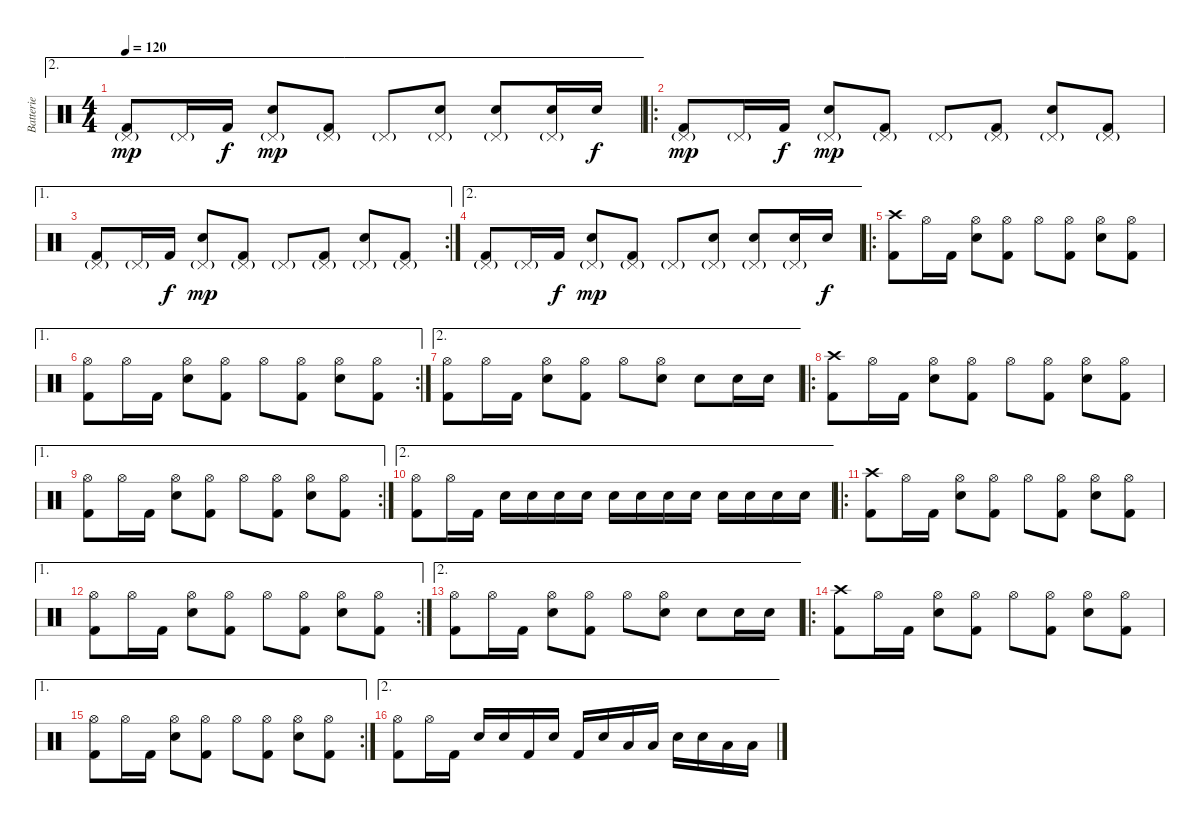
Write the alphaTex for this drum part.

\track ("Batterie" "Batterie") {instrument percussion}
\staff {score}
\articulation defaults
\ae 2
\ts (4 4)
\tempo 120
\clef neutral
\ks c
("Pedal Hi-Hat (hit)"{g} "Kick (hit) 2").8{dy mp} "Pedal Hi-Hat (hit)"{g}.16 "Kick (hit) 2".16{dy f} ("Pedal Hi-Hat (hit)"{g} "Snare (hit) 2").8{dy mp} ("Pedal Hi-Hat (hit)"{g} "Kick (hit) 2").8 "Pedal Hi-Hat (hit)"{g}.8 ("Pedal Hi-Hat (hit)"{g} "Snare (hit) 2").8 ("Pedal Hi-Hat (hit)"{g} "Snare (hit) 2").8 ("Pedal Hi-Hat (hit)"{g} "Snare (hit) 2").16 "Snare (hit) 2".16{dy f} |
\ro
("Pedal Hi-Hat (hit)"{g} "Kick (hit) 2").8{dy mp} "Pedal Hi-Hat (hit)"{g}.16 "Kick (hit) 2".16{dy f} ("Pedal Hi-Hat (hit)"{g} "Snare (hit) 2").8{dy mp} ("Pedal Hi-Hat (hit)"{g} "Kick (hit) 2").8 "Pedal Hi-Hat (hit)"{g}.8 ("Pedal Hi-Hat (hit)"{g} "Kick (hit) 2").8 ("Pedal Hi-Hat (hit)"{g} "Snare (hit) 2").8 ("Pedal Hi-Hat (hit)"{g} "Kick (hit) 2").8 |
\ae 1
\rc 2
("Pedal Hi-Hat (hit)"{g} "Kick (hit) 2").8 "Pedal Hi-Hat (hit)"{g}.16 "Kick (hit) 2".16{dy f} ("Pedal Hi-Hat (hit)"{g} "Snare (hit) 2").8{dy mp} ("Pedal Hi-Hat (hit)"{g} "Kick (hit) 2").8 "Pedal Hi-Hat (hit)"{g}.8 ("Pedal Hi-Hat (hit)"{g} "Kick (hit) 2").8 ("Pedal Hi-Hat (hit)"{g} "Snare (hit) 2").8 ("Pedal Hi-Hat (hit)"{g} "Kick (hit) 2").8 |
\ae 2
("Pedal Hi-Hat (hit)"{g} "Kick (hit) 2").8 "Pedal Hi-Hat (hit)"{g}.16 "Kick (hit) 2".16{dy f} ("Pedal Hi-Hat (hit)"{g} "Snare (hit) 2").8{dy mp} ("Pedal Hi-Hat (hit)"{g} "Kick (hit) 2").8 "Pedal Hi-Hat (hit)"{g}.8 ("Pedal Hi-Hat (hit)"{g} "Snare (hit) 2").8 ("Pedal Hi-Hat (hit)"{g} "Snare (hit) 2").8 ("Pedal Hi-Hat (hit)"{g} "Snare (hit) 2").16 "Snare (hit) 2".16{dy f} |
\ro
("Crash high (hit)" "Kick (hit) 2").8 "Hi-Hat (open)".16 "Kick (hit) 2".16 ("Hi-Hat (open)" "Snare (hit) 2").8 ("Hi-Hat (open)" "Kick (hit) 2").8 "Hi-Hat (open)".8 ("Hi-Hat (open)" "Kick (hit) 2").8 ("Hi-Hat (open)" "Snare (hit) 2").8 ("Hi-Hat (open)" "Kick (hit) 2").8 |
\ae 1
\rc 2
("Hi-Hat (open)" "Kick (hit) 2").8 "Hi-Hat (open)".16 "Kick (hit) 2".16 ("Hi-Hat (open)" "Snare (hit) 2").8 ("Hi-Hat (open)" "Kick (hit) 2").8 "Hi-Hat (open)".8 ("Hi-Hat (open)" "Kick (hit) 2").8 ("Hi-Hat (open)" "Snare (hit) 2").8 ("Hi-Hat (open)" "Kick (hit) 2").8 |
\ae 2
("Hi-Hat (open)" "Kick (hit) 2").8 "Hi-Hat (open)".16 "Kick (hit) 2".16 ("Hi-Hat (open)" "Snare (hit) 2").8 ("Hi-Hat (open)" "Kick (hit) 2").8 "Hi-Hat (open)".8 ("Hi-Hat (open)" "Snare (hit) 2").8 "Snare (hit) 2".8 "Snare (hit) 2".16 "Snare (hit) 2".16 |
\ro
("Crash high (hit)" "Kick (hit) 2").8 "Hi-Hat (open)".16 "Kick (hit) 2".16 ("Hi-Hat (open)" "Snare (hit) 2").8 ("Hi-Hat (open)" "Kick (hit) 2").8 "Hi-Hat (open)".8 ("Hi-Hat (open)" "Kick (hit) 2").8 ("Hi-Hat (open)" "Snare (hit) 2").8 ("Hi-Hat (open)" "Kick (hit) 2").8 |
\ae 1
\rc 2
("Hi-Hat (open)" "Kick (hit) 2").8 "Hi-Hat (open)".16 "Kick (hit) 2".16 ("Hi-Hat (open)" "Snare (hit) 2").8 ("Hi-Hat (open)" "Kick (hit) 2").8 "Hi-Hat (open)".8 ("Hi-Hat (open)" "Kick (hit) 2").8 ("Hi-Hat (open)" "Snare (hit) 2").8 ("Hi-Hat (open)" "Kick (hit) 2").8 |
\ae 2
("Hi-Hat (open)" "Kick (hit) 2").8 "Hi-Hat (open)".16 "Kick (hit) 2".16 "Snare (hit) 2".16 "Snare (hit) 2".16 "Snare (hit) 2".16 "Snare (hit) 2".16 "Snare (hit) 2".16 "Snare (hit) 2".16 "Snare (hit) 2".16 "Snare (hit) 2".16 "Snare (hit) 2".16 "Snare (hit) 2".16 "Snare (hit) 2".16 "Snare (hit) 2".16 |
\ro
("Crash high (hit)" "Kick (hit) 2").8 "Hi-Hat (open)".16 "Kick (hit) 2".16 ("Hi-Hat (open)" "Snare (hit) 2").8 ("Hi-Hat (open)" "Kick (hit) 2").8 "Hi-Hat (open)".8 ("Hi-Hat (open)" "Kick (hit) 2").8 ("Hi-Hat (open)" "Snare (hit) 2").8 ("Hi-Hat (open)" "Kick (hit) 2").8 |
\ae 1
\rc 2
("Hi-Hat (open)" "Kick (hit) 2").8 "Hi-Hat (open)".16 "Kick (hit) 2".16 ("Hi-Hat (open)" "Snare (hit) 2").8 ("Hi-Hat (open)" "Kick (hit) 2").8 "Hi-Hat (open)".8 ("Hi-Hat (open)" "Kick (hit) 2").8 ("Hi-Hat (open)" "Snare (hit) 2").8 ("Hi-Hat (open)" "Kick (hit) 2").8 |
\ae 2
("Hi-Hat (open)" "Kick (hit) 2").8 "Hi-Hat (open)".16 "Kick (hit) 2".16 ("Hi-Hat (open)" "Snare (hit) 2").8 ("Hi-Hat (open)" "Kick (hit) 2").8 "Hi-Hat (open)".8 ("Hi-Hat (open)" "Snare (hit) 2").8 "Snare (hit) 2".8 "Snare (hit) 2".16 "Snare (hit) 2".16 |
\ro
("Crash high (hit)" "Kick (hit) 2").8 "Hi-Hat (open)".16 "Kick (hit) 2".16 ("Hi-Hat (open)" "Snare (hit) 2").8 ("Hi-Hat (open)" "Kick (hit) 2").8 "Hi-Hat (open)".8 ("Hi-Hat (open)" "Kick (hit) 2").8 ("Hi-Hat (open)" "Snare (hit) 2").8 ("Hi-Hat (open)" "Kick (hit) 2").8 |
\ae 1
\rc 2
("Hi-Hat (open)" "Kick (hit) 2").8 "Hi-Hat (open)".16 "Kick (hit) 2".16 ("Hi-Hat (open)" "Snare (hit) 2").8 ("Hi-Hat (open)" "Kick (hit) 2").8 "Hi-Hat (open)".8 ("Hi-Hat (open)" "Kick (hit) 2").8 ("Hi-Hat (open)" "Snare (hit) 2").8 ("Hi-Hat (open)" "Kick (hit) 2").8 |
\ae 2
("Hi-Hat (open)" "Kick (hit) 2").8 "Hi-Hat (open)".16 "Kick (hit) 2".16 "Snare (hit) 2".16 "Snare (hit) 2".16 "Kick (hit) 2".16 "Snare (hit) 2".16 "Kick (hit) 2".16 "Snare (hit) 2".16 "Low Floor Tom (hit)".16 "Low Floor Tom (hit)".16 "Snare (hit) 2".16 "Snare (hit) 2".16 "Low Floor Tom (hit)".16 "Low Floor Tom (hit)".16
